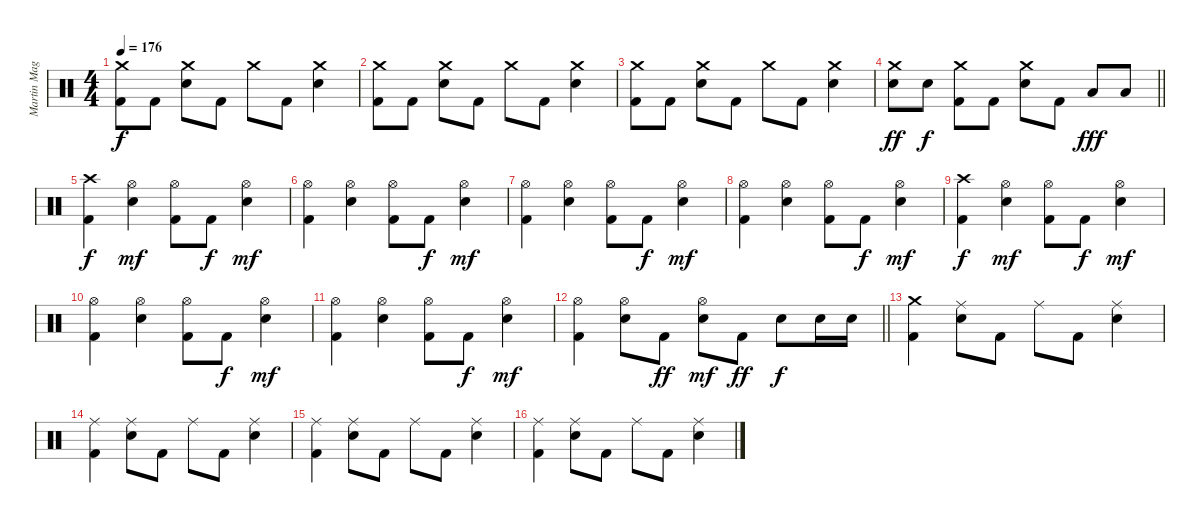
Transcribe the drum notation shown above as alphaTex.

\track ("Martin Magliano" "Martin Mag") {instrument percussion}
\staff {score}
\articulation defaults
\ts (4 4)
\tempo 176
\clef neutral
\ks c
("Crash medium (hit)" "Kick (hit) 2").8{dy f} "Kick (hit) 2".8 ("Crash medium (hit)" "Snare (hit) 2").8 "Kick (hit) 2".8 "Crash medium (hit)".8 "Kick (hit) 2".8 ("Crash medium (hit)" "Snare (hit) 2").4 |
("Crash medium (hit)" "Kick (hit) 2").8 "Kick (hit) 2".8 ("Crash medium (hit)" "Snare (hit) 2").8 "Kick (hit) 2".8 "Crash medium (hit)".8 "Kick (hit) 2".8 ("Crash medium (hit)" "Snare (hit) 2").4 |
("Crash medium (hit)" "Kick (hit) 2").8 "Kick (hit) 2".8 ("Crash medium (hit)" "Snare (hit) 2").8 "Kick (hit) 2".8 "Crash medium (hit)".8 "Kick (hit) 2".8 ("Crash medium (hit)" "Snare (hit) 2").4 |
\barLineRight lightlight
("Crash medium (hit)" "Snare (hit) 2").8{dy ff} "Snare (hit) 2".8{dy f} ("Crash medium (hit)" "Kick (hit) 2").8 "Kick (hit) 2".8 ("Crash medium (hit)" "Snare (hit) 2").8 "Kick (hit) 2".8 "Low Tom (hit)".8{dy fff} "Low Tom (hit)".8 |
("Crash high (hit)" "Kick (hit) 2").4{dy f} ("Hi-Hat (open)" "Snare (hit) 2").4{dy mf} ("Hi-Hat (open)" "Kick (hit) 2").8 "Kick (hit) 2".8{dy f} ("Hi-Hat (open)" "Snare (hit) 2").4{dy mf} |
("Hi-Hat (open)" "Kick (hit) 2").4 ("Hi-Hat (open)" "Snare (hit) 2").4 ("Hi-Hat (open)" "Kick (hit) 2").8 "Kick (hit) 2".8{dy f} ("Hi-Hat (open)" "Snare (hit) 2").4{dy mf} |
("Hi-Hat (open)" "Kick (hit) 2").4 ("Hi-Hat (open)" "Snare (hit) 2").4 ("Hi-Hat (open)" "Kick (hit) 2").8 "Kick (hit) 2".8{dy f} ("Hi-Hat (open)" "Snare (hit) 2").4{dy mf} |
("Hi-Hat (open)" "Kick (hit) 2").4 ("Hi-Hat (open)" "Snare (hit) 2").4 ("Hi-Hat (open)" "Kick (hit) 2").8 "Kick (hit) 2".8{dy f} ("Hi-Hat (open)" "Snare (hit) 2").4{dy mf} |
("Crash high (hit)" "Kick (hit) 2").4{dy f} ("Hi-Hat (open)" "Snare (hit) 2").4{dy mf} ("Hi-Hat (open)" "Kick (hit) 2").8 "Kick (hit) 2".8{dy f} ("Hi-Hat (open)" "Snare (hit) 2").4{dy mf} |
("Hi-Hat (open)" "Kick (hit) 2").4 ("Hi-Hat (open)" "Snare (hit) 2").4 ("Hi-Hat (open)" "Kick (hit) 2").8 "Kick (hit) 2".8{dy f} ("Hi-Hat (open)" "Snare (hit) 2").4{dy mf} |
("Hi-Hat (open)" "Kick (hit) 2").4 ("Hi-Hat (open)" "Snare (hit) 2").4 ("Hi-Hat (open)" "Kick (hit) 2").8 "Kick (hit) 2".8{dy f} ("Hi-Hat (open)" "Snare (hit) 2").4{dy mf} |
\barLineRight lightlight
("Hi-Hat (open)" "Kick (hit) 2").4 ("Hi-Hat (open)" "Snare (hit) 2").8 "Kick (hit) 2".8{dy ff} ("Hi-Hat (open)" "Snare (hit) 2").8{dy mf} "Kick (hit) 2".8{dy ff} "Snare (hit) 2".8{dy f} "Snare (hit) 2".16 "Snare (hit) 2".16 |
("Crash medium (hit)" "Kick (hit) 2").4 ("Ride (middle)" "Snare (hit) 2").8 "Kick (hit) 2".8 "Ride (middle)".8 "Kick (hit) 2".8 ("Ride (middle)" "Snare (hit) 2").4 |
("Ride (middle)" "Kick (hit) 2").4 ("Ride (middle)" "Snare (hit) 2").8 "Kick (hit) 2".8 "Ride (middle)".8 "Kick (hit) 2".8 ("Ride (middle)" "Snare (hit) 2").4 |
("Ride (middle)" "Kick (hit) 2").4 ("Ride (middle)" "Snare (hit) 2").8 "Kick (hit) 2".8 "Ride (middle)".8 "Kick (hit) 2".8 ("Ride (middle)" "Snare (hit) 2").4 |
("Ride (middle)" "Kick (hit) 2").4 ("Ride (middle)" "Snare (hit) 2").8 "Kick (hit) 2".8 "Ride (middle)".8 "Kick (hit) 2".8 ("Ride (middle)" "Snare (hit) 2").4
